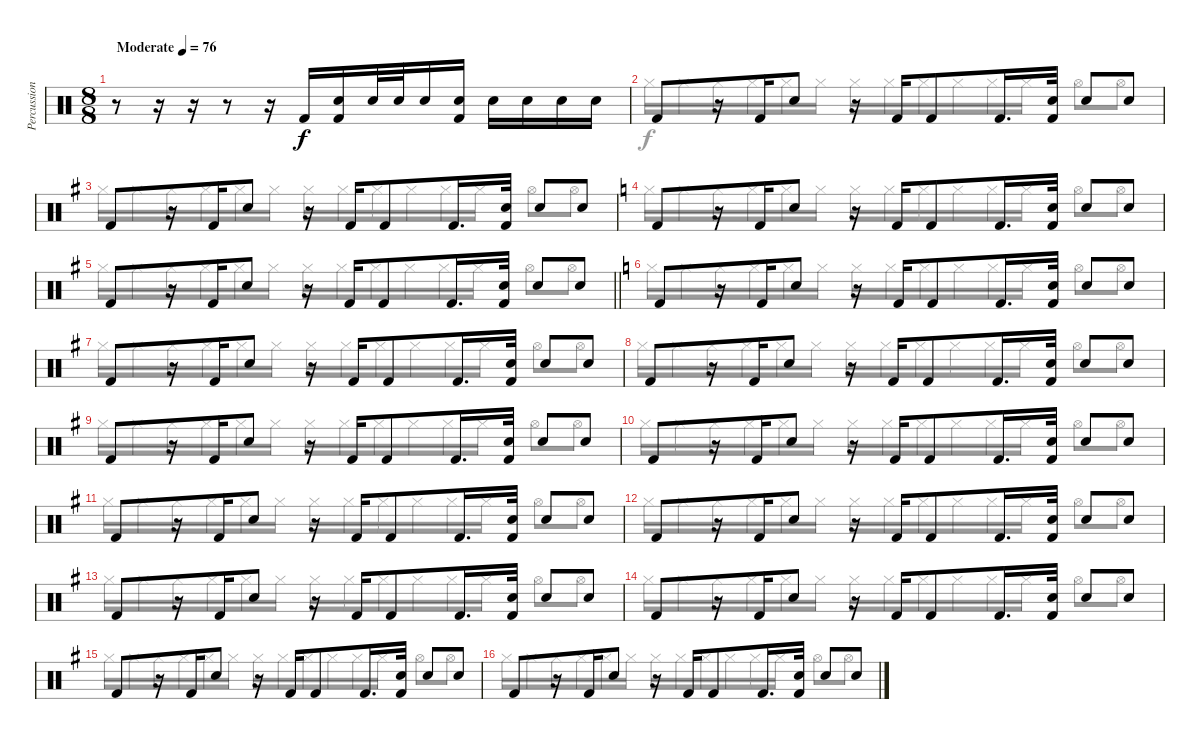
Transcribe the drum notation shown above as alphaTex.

\track ("Percussion" "Percussion") {instrument percussion}
\staff {score}
\articulation defaults
\voice
\ts (8 8)
\tempo (76 "Moderate")
\clef neutral
\ks c
r.8{dy f} r.16 r.16 r.8 r.16 "Kick (hit) 2".16 ("Electric Snare (hit)" "Kick (hit) 2").16 "Electric Snare (hit)".32 "Electric Snare (hit)".32 "Electric Snare (hit)".16 ("Electric Snare (hit)" "Kick (hit) 2").16 "Electric Snare (hit)".16 "Electric Snare (hit)".16 "Snare (hit) 2".16 "Electric Snare (hit)".16 |
"Kick (hit) 2".8 r.16 "Kick (hit) 2".16 "Snare (hit) 2".8 r.16 "Kick (hit) 2".16 "Kick (hit) 2".8 "Kick (hit) 2".16{d} ("Snare (hit) 2" "Kick (hit) 2").32 "Snare (hit) 2".8 "Snare (hit) 2".8 |
\ks g "Kick (hit) 2".8
r.16 "Kick (hit) 2".16 "Snare (hit) 2".8 r.16 "Kick (hit) 2".16 "Kick (hit) 2".8 "Kick (hit) 2".16{d} ("Snare (hit) 2" "Kick (hit) 2").32 "Snare (hit) 2".8 "Snare (hit) 2".8 |
\ks c "Kick (hit) 2".8
r.16 "Kick (hit) 2".16 "Snare (hit) 2".8 r.16 "Kick (hit) 2".16 "Kick (hit) 2".8 "Kick (hit) 2".16{d} ("Snare (hit) 2" "Kick (hit) 2").32 "Snare (hit) 2".8 "Snare (hit) 2".8 |
\barLineRight lightlight
\ks g "Kick (hit) 2".8
r.16 "Kick (hit) 2".16 "Snare (hit) 2".8 r.16 "Kick (hit) 2".16 "Kick (hit) 2".8 "Kick (hit) 2".16{d} ("Snare (hit) 2" "Kick (hit) 2").32 "Snare (hit) 2".8 "Snare (hit) 2".8 |
\ks c "Kick (hit) 2".8
r.16 "Kick (hit) 2".16 "Snare (hit) 2".8 r.16 "Kick (hit) 2".16 "Kick (hit) 2".8 "Kick (hit) 2".16{d} ("Snare (hit) 2" "Kick (hit) 2").32 "Snare (hit) 2".8 "Snare (hit) 2".8 |
\ks g "Kick (hit) 2".8
r.16 "Kick (hit) 2".16 "Snare (hit) 2".8 r.16 "Kick (hit) 2".16 "Kick (hit) 2".8 "Kick (hit) 2".16{d} ("Snare (hit) 2" "Kick (hit) 2").32 "Snare (hit) 2".8 "Snare (hit) 2".8 |
"Kick (hit) 2".8 r.16 "Kick (hit) 2".16 "Snare (hit) 2".8 r.16 "Kick (hit) 2".16 "Kick (hit) 2".8 "Kick (hit) 2".16{d} ("Snare (hit) 2" "Kick (hit) 2").32 "Snare (hit) 2".8 "Snare (hit) 2".8 |
"Kick (hit) 2".8 r.16 "Kick (hit) 2".16 "Snare (hit) 2".8 r.16 "Kick (hit) 2".16 "Kick (hit) 2".8 "Kick (hit) 2".16{d} ("Snare (hit) 2" "Kick (hit) 2").32 "Snare (hit) 2".8 "Snare (hit) 2".8 |
"Kick (hit) 2".8 r.16 "Kick (hit) 2".16 "Snare (hit) 2".8 r.16 "Kick (hit) 2".16 "Kick (hit) 2".8 "Kick (hit) 2".16{d} ("Snare (hit) 2" "Kick (hit) 2").32 "Snare (hit) 2".8 "Snare (hit) 2".8 |
"Kick (hit) 2".8 r.16 "Kick (hit) 2".16 "Snare (hit) 2".8 r.16 "Kick (hit) 2".16 "Kick (hit) 2".8 "Kick (hit) 2".16{d} ("Snare (hit) 2" "Kick (hit) 2").32 "Snare (hit) 2".8 "Snare (hit) 2".8 |
"Kick (hit) 2".8 r.16 "Kick (hit) 2".16 "Snare (hit) 2".8 r.16 "Kick (hit) 2".16 "Kick (hit) 2".8 "Kick (hit) 2".16{d} ("Snare (hit) 2" "Kick (hit) 2").32 "Snare (hit) 2".8 "Snare (hit) 2".8 |
"Kick (hit) 2".8 r.16 "Kick (hit) 2".16 "Snare (hit) 2".8 r.16 "Kick (hit) 2".16 "Kick (hit) 2".8 "Kick (hit) 2".16{d} ("Snare (hit) 2" "Kick (hit) 2").32 "Snare (hit) 2".8 "Snare (hit) 2".8 |
"Kick (hit) 2".8 r.16 "Kick (hit) 2".16 "Snare (hit) 2".8 r.16 "Kick (hit) 2".16 "Kick (hit) 2".8 "Kick (hit) 2".16{d} ("Snare (hit) 2" "Kick (hit) 2").32 "Snare (hit) 2".8 "Snare (hit) 2".8 |
"Kick (hit) 2".8 r.16 "Kick (hit) 2".16 "Snare (hit) 2".8 r.16 "Kick (hit) 2".16 "Kick (hit) 2".8 "Kick (hit) 2".16{d} ("Snare (hit) 2" "Kick (hit) 2").32 "Snare (hit) 2".8 "Snare (hit) 2".8 |
"Kick (hit) 2".8 r.16 "Kick (hit) 2".16 "Snare (hit) 2".8 r.16 "Kick (hit) 2".16 "Kick (hit) 2".8 "Kick (hit) 2".16{d} ("Snare (hit) 2" "Kick (hit) 2").32 "Snare (hit) 2".8 "Snare (hit) 2".8
\voice
\clef neutral
\ottava regular
\simile none
\ks c
|
"Hi-Hat (closed)".16 "Hi-Hat (closed)".16 "Hi-Hat (closed)".16 "Hi-Hat (closed)".16 "Hi-Hat (closed)".16 "Hi-Hat (closed)".16 "Hi-Hat (closed)".16 "Hi-Hat (closed)".16 "Hi-Hat (closed)".16 "Hi-Hat (closed)".16 "Hi-Hat (closed)".16 "Hi-Hat (closed)".16 "Hi-Hat (open)".8 "Hi-Hat (open)".8 |
\ks g "Hi-Hat (closed)".16 "Hi-Hat (closed)".16 "Hi-Hat (closed)".16 "Hi-Hat (closed)".16 "Hi-Hat (closed)".16 "Hi-Hat (closed)".16 "Hi-Hat (closed)".16 "Hi-Hat (closed)".16 "Hi-Hat (closed)".16 "Hi-Hat (closed)".16 "Hi-Hat (closed)".16 "Hi-Hat (closed)".16 "Hi-Hat (open)".8 "Hi-Hat (open)".8
|
\ks c "Hi-Hat (closed)".16 "Hi-Hat (closed)".16 "Hi-Hat (closed)".16 "Hi-Hat (closed)".16 "Hi-Hat (closed)".16 "Hi-Hat (closed)".16 "Hi-Hat (closed)".16 "Hi-Hat (closed)".16 "Hi-Hat (closed)".16 "Hi-Hat (closed)".16 "Hi-Hat (closed)".16 "Hi-Hat (closed)".16 "Hi-Hat (open)".8 "Hi-Hat (open)".8
|
\barLineRight lightlight
\ks g "Hi-Hat (closed)".16 "Hi-Hat (closed)".16 "Hi-Hat (closed)".16 "Hi-Hat (closed)".16 "Hi-Hat (closed)".16 "Hi-Hat (closed)".16 "Hi-Hat (closed)".16 "Hi-Hat (closed)".16 "Hi-Hat (closed)".16 "Hi-Hat (closed)".16 "Hi-Hat (closed)".16 "Hi-Hat (closed)".16 "Hi-Hat (open)".8 "Hi-Hat (open)".8
|
\ks c "Hi-Hat (closed)".16 "Hi-Hat (closed)".16 "Hi-Hat (closed)".16 "Hi-Hat (closed)".16 "Hi-Hat (closed)".16 "Hi-Hat (closed)".16 "Hi-Hat (closed)".16 "Hi-Hat (closed)".16 "Hi-Hat (closed)".16 "Hi-Hat (closed)".16 "Hi-Hat (closed)".16 "Hi-Hat (closed)".16 "Hi-Hat (open)".8 "Hi-Hat (open)".8
|
\ks g "Hi-Hat (closed)".16 "Hi-Hat (closed)".16 "Hi-Hat (closed)".16 "Hi-Hat (closed)".16 "Hi-Hat (closed)".16 "Hi-Hat (closed)".16 "Hi-Hat (closed)".16 "Hi-Hat (closed)".16 "Hi-Hat (closed)".16 "Hi-Hat (closed)".16 "Hi-Hat (closed)".16 "Hi-Hat (closed)".16 "Hi-Hat (open)".8 "Hi-Hat (open)".8
|
"Hi-Hat (closed)".16 "Hi-Hat (closed)".16 "Hi-Hat (closed)".16 "Hi-Hat (closed)".16 "Hi-Hat (closed)".16 "Hi-Hat (closed)".16 "Hi-Hat (closed)".16 "Hi-Hat (closed)".16 "Hi-Hat (closed)".16 "Hi-Hat (closed)".16 "Hi-Hat (closed)".16 "Hi-Hat (closed)".16 "Hi-Hat (open)".8 "Hi-Hat (open)".8 |
"Hi-Hat (closed)".16 "Hi-Hat (closed)".16 "Hi-Hat (closed)".16 "Hi-Hat (closed)".16 "Hi-Hat (closed)".16 "Hi-Hat (closed)".16 "Hi-Hat (closed)".16 "Hi-Hat (closed)".16 "Hi-Hat (closed)".16 "Hi-Hat (closed)".16 "Hi-Hat (closed)".16 "Hi-Hat (closed)".16 "Hi-Hat (open)".8 "Hi-Hat (open)".8 |
"Hi-Hat (closed)".16 "Hi-Hat (closed)".16 "Hi-Hat (closed)".16 "Hi-Hat (closed)".16 "Hi-Hat (closed)".16 "Hi-Hat (closed)".16 "Hi-Hat (closed)".16 "Hi-Hat (closed)".16 "Hi-Hat (closed)".16 "Hi-Hat (closed)".16 "Hi-Hat (closed)".16 "Hi-Hat (closed)".16 "Hi-Hat (open)".8 "Hi-Hat (open)".8 |
"Hi-Hat (closed)".16 "Hi-Hat (closed)".16 "Hi-Hat (closed)".16 "Hi-Hat (closed)".16 "Hi-Hat (closed)".16 "Hi-Hat (closed)".16 "Hi-Hat (closed)".16 "Hi-Hat (closed)".16 "Hi-Hat (closed)".16 "Hi-Hat (closed)".16 "Hi-Hat (closed)".16 "Hi-Hat (closed)".16 "Hi-Hat (open)".8 "Hi-Hat (open)".8 |
"Hi-Hat (closed)".16 "Hi-Hat (closed)".16 "Hi-Hat (closed)".16 "Hi-Hat (closed)".16 "Hi-Hat (closed)".16 "Hi-Hat (closed)".16 "Hi-Hat (closed)".16 "Hi-Hat (closed)".16 "Hi-Hat (closed)".16 "Hi-Hat (closed)".16 "Hi-Hat (closed)".16 "Hi-Hat (closed)".16 "Hi-Hat (open)".8 "Hi-Hat (open)".8 |
"Hi-Hat (closed)".16 "Hi-Hat (closed)".16 "Hi-Hat (closed)".16 "Hi-Hat (closed)".16 "Hi-Hat (closed)".16 "Hi-Hat (closed)".16 "Hi-Hat (closed)".16 "Hi-Hat (closed)".16 "Hi-Hat (closed)".16 "Hi-Hat (closed)".16 "Hi-Hat (closed)".16 "Hi-Hat (closed)".16 "Hi-Hat (open)".8 "Hi-Hat (open)".8 |
"Hi-Hat (closed)".16 "Hi-Hat (closed)".16 "Hi-Hat (closed)".16 "Hi-Hat (closed)".16 "Hi-Hat (closed)".16 "Hi-Hat (closed)".16 "Hi-Hat (closed)".16 "Hi-Hat (closed)".16 "Hi-Hat (closed)".16 "Hi-Hat (closed)".16 "Hi-Hat (closed)".16 "Hi-Hat (closed)".16 "Hi-Hat (open)".8 "Hi-Hat (open)".8 |
"Hi-Hat (closed)".16 "Hi-Hat (closed)".16 "Hi-Hat (closed)".16 "Hi-Hat (closed)".16 "Hi-Hat (closed)".16 "Hi-Hat (closed)".16 "Hi-Hat (closed)".16 "Hi-Hat (closed)".16 "Hi-Hat (closed)".16 "Hi-Hat (closed)".16 "Hi-Hat (closed)".16 "Hi-Hat (closed)".16 "Hi-Hat (open)".8 "Hi-Hat (open)".8 |
"Hi-Hat (closed)".16 "Hi-Hat (closed)".16 "Hi-Hat (closed)".16 "Hi-Hat (closed)".16 "Hi-Hat (closed)".16 "Hi-Hat (closed)".16 "Hi-Hat (closed)".16 "Hi-Hat (closed)".16 "Hi-Hat (closed)".16 "Hi-Hat (closed)".16 "Hi-Hat (closed)".16 "Hi-Hat (closed)".16 "Hi-Hat (open)".8 "Hi-Hat (open)".8
